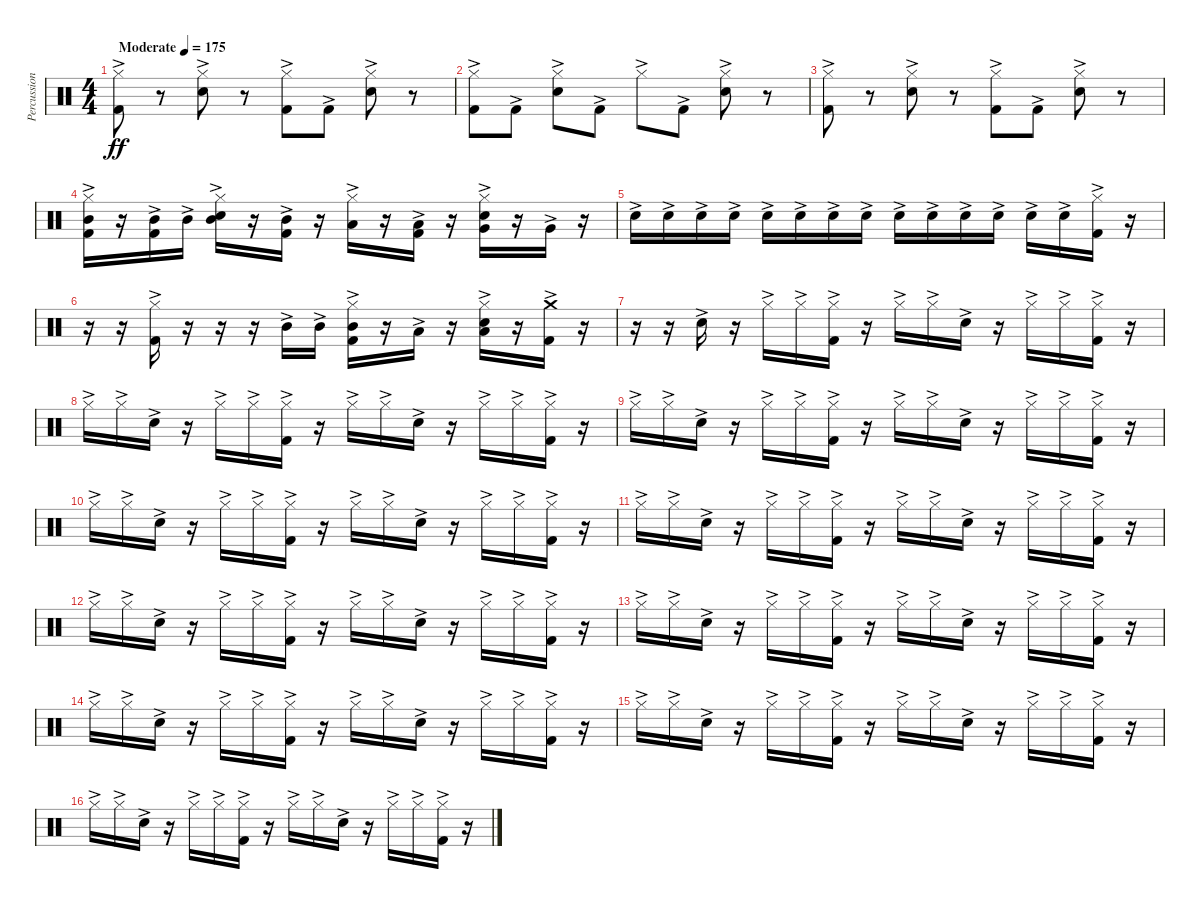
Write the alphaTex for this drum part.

\track ("Percussion" "Percussion") {instrument percussion}
\staff {score}
\articulation defaults
\ts (4 4)
\tempo (175 "Moderate")
\clef neutral
\ks c
("Hi-Hat (closed)"{ac} "Kick (hit) 2"{ac}).8{dy ff} r.8 ("Hi-Hat (closed)"{ac} "Snare (hit) 2"{ac}).8 r.8 ("Hi-Hat (closed)"{ac} "Kick (hit) 2"{ac}).8 "Kick (hit) 2"{ac}.8 ("Hi-Hat (closed)"{ac} "Snare (hit) 2"{ac}).8 r.8 |
("Hi-Hat (closed)"{ac} "Kick (hit) 2"{ac}).8 "Kick (hit) 2"{ac}.8 ("Hi-Hat (closed)"{ac} "Snare (hit) 2"{ac}).8 "Kick (hit) 2"{ac}.8 "Hi-Hat (closed)"{ac}.8 "Kick (hit) 2"{ac}.8 ("Hi-Hat (closed)"{ac} "Snare (hit) 2"{ac}).8 r.8 |
("Hi-Hat (closed)"{ac} "Kick (hit) 2"{ac}).8 r.8 ("Hi-Hat (closed)"{ac} "Snare (hit) 2"{ac}).8 r.8 ("Hi-Hat (closed)"{ac} "Kick (hit) 2"{ac}).8 "Kick (hit) 2"{ac}.8 ("Hi-Hat (closed)"{ac} "Snare (hit) 2"{ac}).8 r.8 |
("Hi-Hat (closed)"{ac} "Mid Tom (hit)"{ac} "Kick (hit) 2"{ac}).16 r.16 ("Mid Tom (hit)"{ac} "Kick (hit) 2"{ac}).16 "Mid Tom (hit)"{ac}.16 ("Hi-Hat (closed)"{ac} "Snare (hit) 2"{ac} "Mid Tom (hit)"{ac}).16 r.16 ("Mid Tom (hit)"{ac} "Kick (hit) 2"{ac}).16 r.16 ("Hi-Hat (closed)"{ac} "Low Tom (hit)"{ac}).16 r.16 ("Low Tom (hit)"{ac} "Kick (hit) 2"{ac}).16 r.16 ("Hi-Hat (closed)"{ac} "Snare (hit) 2"{ac} "Very Low Tom (hit)"{ac}).16 r.16 "Very Low Tom (hit)"{ac}.16 r.16 |
"Snare (hit) 2"{ac}.16 "Snare (hit) 2"{ac}.16 "Snare (hit) 2"{ac}.16 "Snare (hit) 2"{ac}.16 "Snare (hit) 2"{ac}.16 "Snare (hit) 2"{ac}.16 "Snare (hit) 2"{ac}.16 "Snare (hit) 2"{ac}.16 "Snare (hit) 2"{ac}.16 "Snare (hit) 2"{ac}.16 "Snare (hit) 2"{ac}.16 "Snare (hit) 2"{ac}.16 "Snare (hit) 2"{ac}.16 "Snare (hit) 2"{ac}.16 ("Hi-Hat (closed)"{ac} "Kick (hit) 2"{ac}).16 r.16 |
r.16 r.16 ("Hi-Hat (closed)"{ac} "Kick (hit) 2"{ac}).16 r.16 r.16 r.16 "Mid Tom (hit)"{ac}.16 "Mid Tom (hit)"{ac}.16 ("Hi-Hat (closed)"{ac} "Mid Tom (hit)"{ac} "Kick (hit) 2"{ac}).16 r.16 "Low Tom (hit)"{ac}.16 r.16 ("Hi-Hat (closed)"{ac} "Low Tom (hit)"{ac} "Snare (hit)"{ac}).16 r.16 ("Crash medium (hit)"{ac} "Kick (hit) 2"{ac}).16 r.16 |
r.16 r.16 "Snare (hit) 2"{ac}.16 r.16 "Hi-Hat (closed)"{ac}.16 "Hi-Hat (closed)"{ac}.16 ("Hi-Hat (closed)"{ac} "Kick (hit) 2"{ac}).16 r.16 "Hi-Hat (closed)"{ac}.16 "Hi-Hat (closed)"{ac}.16 "Snare (hit) 2"{ac}.16 r.16 "Hi-Hat (closed)"{ac}.16 "Hi-Hat (closed)"{ac}.16 ("Hi-Hat (closed)"{ac} "Kick (hit) 2"{ac}).16 r.16 |
"Hi-Hat (closed)"{ac}.16 "Hi-Hat (closed)"{ac}.16 "Snare (hit) 2"{ac}.16 r.16 "Hi-Hat (closed)"{ac}.16 "Hi-Hat (closed)"{ac}.16 ("Hi-Hat (closed)"{ac} "Kick (hit) 2"{ac}).16 r.16 "Hi-Hat (closed)"{ac}.16 "Hi-Hat (closed)"{ac}.16 "Snare (hit) 2"{ac}.16 r.16 "Hi-Hat (closed)"{ac}.16 "Hi-Hat (closed)"{ac}.16 ("Hi-Hat (closed)"{ac} "Kick (hit) 2"{ac}).16 r.16 |
"Hi-Hat (closed)"{ac}.16 "Hi-Hat (closed)"{ac}.16 "Snare (hit) 2"{ac}.16 r.16 "Hi-Hat (closed)"{ac}.16 "Hi-Hat (closed)"{ac}.16 ("Hi-Hat (closed)"{ac} "Kick (hit) 2"{ac}).16 r.16 "Hi-Hat (closed)"{ac}.16 "Hi-Hat (closed)"{ac}.16 "Snare (hit) 2"{ac}.16 r.16 "Hi-Hat (closed)"{ac}.16 "Hi-Hat (closed)"{ac}.16 ("Hi-Hat (closed)"{ac} "Kick (hit) 2"{ac}).16 r.16 |
"Hi-Hat (closed)"{ac}.16 "Hi-Hat (closed)"{ac}.16 "Snare (hit) 2"{ac}.16 r.16 "Hi-Hat (closed)"{ac}.16 "Hi-Hat (closed)"{ac}.16 ("Hi-Hat (closed)"{ac} "Kick (hit) 2"{ac}).16 r.16 "Hi-Hat (closed)"{ac}.16 "Hi-Hat (closed)"{ac}.16 "Snare (hit) 2"{ac}.16 r.16 "Hi-Hat (closed)"{ac}.16 "Hi-Hat (closed)"{ac}.16 ("Hi-Hat (closed)"{ac} "Kick (hit) 2"{ac}).16 r.16 |
"Hi-Hat (closed)"{ac}.16 "Hi-Hat (closed)"{ac}.16 "Snare (hit) 2"{ac}.16 r.16 "Hi-Hat (closed)"{ac}.16 "Hi-Hat (closed)"{ac}.16 ("Hi-Hat (closed)"{ac} "Kick (hit) 2"{ac}).16 r.16 "Hi-Hat (closed)"{ac}.16 "Hi-Hat (closed)"{ac}.16 "Snare (hit) 2"{ac}.16 r.16 "Hi-Hat (closed)"{ac}.16 "Hi-Hat (closed)"{ac}.16 ("Hi-Hat (closed)"{ac} "Kick (hit) 2"{ac}).16 r.16 |
"Hi-Hat (closed)"{ac}.16 "Hi-Hat (closed)"{ac}.16 "Snare (hit) 2"{ac}.16 r.16 "Hi-Hat (closed)"{ac}.16 "Hi-Hat (closed)"{ac}.16 ("Hi-Hat (closed)"{ac} "Kick (hit) 2"{ac}).16 r.16 "Hi-Hat (closed)"{ac}.16 "Hi-Hat (closed)"{ac}.16 "Snare (hit) 2"{ac}.16 r.16 "Hi-Hat (closed)"{ac}.16 "Hi-Hat (closed)"{ac}.16 ("Hi-Hat (closed)"{ac} "Kick (hit) 2"{ac}).16 r.16 |
"Hi-Hat (closed)"{ac}.16 "Hi-Hat (closed)"{ac}.16 "Snare (hit) 2"{ac}.16 r.16 "Hi-Hat (closed)"{ac}.16 "Hi-Hat (closed)"{ac}.16 ("Hi-Hat (closed)"{ac} "Kick (hit) 2"{ac}).16 r.16 "Hi-Hat (closed)"{ac}.16 "Hi-Hat (closed)"{ac}.16 "Snare (hit) 2"{ac}.16 r.16 "Hi-Hat (closed)"{ac}.16 "Hi-Hat (closed)"{ac}.16 ("Hi-Hat (closed)"{ac} "Kick (hit) 2"{ac}).16 r.16 |
"Hi-Hat (closed)"{ac}.16 "Hi-Hat (closed)"{ac}.16 "Snare (hit) 2"{ac}.16 r.16 "Hi-Hat (closed)"{ac}.16 "Hi-Hat (closed)"{ac}.16 ("Hi-Hat (closed)"{ac} "Kick (hit) 2"{ac}).16 r.16 "Hi-Hat (closed)"{ac}.16 "Hi-Hat (closed)"{ac}.16 "Snare (hit) 2"{ac}.16 r.16 "Hi-Hat (closed)"{ac}.16 "Hi-Hat (closed)"{ac}.16 ("Hi-Hat (closed)"{ac} "Kick (hit) 2"{ac}).16 r.16 |
"Hi-Hat (closed)"{ac}.16 "Hi-Hat (closed)"{ac}.16 "Snare (hit) 2"{ac}.16 r.16 "Hi-Hat (closed)"{ac}.16 "Hi-Hat (closed)"{ac}.16 ("Hi-Hat (closed)"{ac} "Kick (hit) 2"{ac}).16 r.16 "Hi-Hat (closed)"{ac}.16 "Hi-Hat (closed)"{ac}.16 "Snare (hit) 2"{ac}.16 r.16 "Hi-Hat (closed)"{ac}.16 "Hi-Hat (closed)"{ac}.16 ("Hi-Hat (closed)"{ac} "Kick (hit) 2"{ac}).16 r.16 |
"Hi-Hat (closed)"{ac}.16 "Hi-Hat (closed)"{ac}.16 "Snare (hit) 2"{ac}.16 r.16 "Hi-Hat (closed)"{ac}.16 "Hi-Hat (closed)"{ac}.16 ("Hi-Hat (closed)"{ac} "Kick (hit) 2"{ac}).16 r.16 "Hi-Hat (closed)"{ac}.16 "Hi-Hat (closed)"{ac}.16 "Snare (hit) 2"{ac}.16 r.16 "Hi-Hat (closed)"{ac}.16 "Hi-Hat (closed)"{ac}.16 ("Hi-Hat (closed)"{ac} "Kick (hit) 2"{ac}).16 r.16
